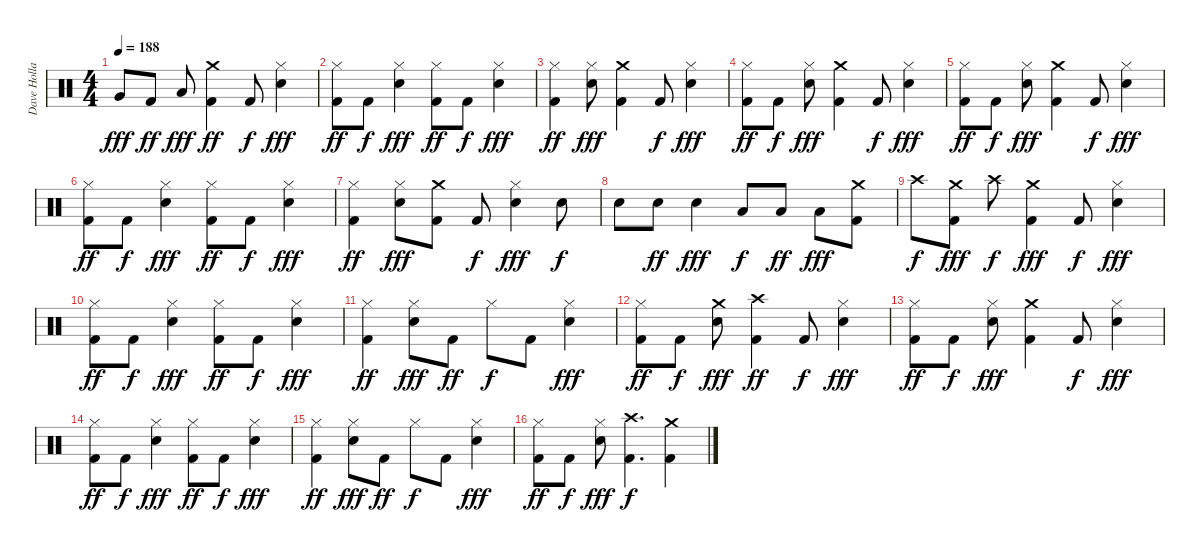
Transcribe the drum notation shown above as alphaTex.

\track ("Dave Holland" "Dave Holla") {instrument percussion}
\staff {score}
\articulation defaults
\ts (4 4)
\tempo 188
\clef neutral
\ks c "Very Low Tom (hit)".8{dy fff} "Kick (hit) 2".8{dy ff} "Low Floor Tom (hit)".8{dy fff}
("Crash medium (hit)" "Kick (hit) 2").4{dy ff} "Kick (hit) 2".8{dy f} ("Snare (hit) 2" "Hi-Hat (closed)").4{dy fff} |
("Kick (hit) 2" "Hi-Hat (closed)").8{dy ff} "Kick (hit) 2".8{dy f} ("Snare (hit) 2" "Hi-Hat (closed)").4{dy fff} ("Kick (hit) 2" "Hi-Hat (closed)").8{dy ff} "Kick (hit) 2".8{dy f} ("Snare (hit) 2" "Hi-Hat (closed)").4{dy fff} |
("Kick (hit) 2" "Hi-Hat (closed)").4{dy ff} ("Snare (hit) 2" "Hi-Hat (closed)").8{dy fff} ("Kick (hit) 2" "Crash medium (hit)").4 "Kick (hit) 2".8{dy f} ("Snare (hit) 2" "Hi-Hat (closed)").4{dy fff} |
("Kick (hit) 2" "Hi-Hat (closed)").8{dy ff} "Kick (hit) 2".8{dy f} ("Snare (hit) 2" "Hi-Hat (closed)").8{dy fff} ("Kick (hit) 2" "Crash medium (hit)").4 "Kick (hit) 2".8{dy f} ("Snare (hit) 2" "Hi-Hat (closed)").4{dy fff} |
("Kick (hit) 2" "Hi-Hat (closed)").8{dy ff} "Kick (hit) 2".8{dy f} ("Snare (hit) 2" "Hi-Hat (closed)").8{dy fff} ("Kick (hit) 2" "Crash medium (hit)").4 "Kick (hit) 2".8{dy f} ("Snare (hit) 2" "Hi-Hat (closed)").4{dy fff} |
("Kick (hit) 2" "Hi-Hat (closed)").8{dy ff} "Kick (hit) 2".8{dy f} ("Snare (hit) 2" "Hi-Hat (closed)").4{dy fff} ("Kick (hit) 2" "Hi-Hat (closed)").8{dy ff} "Kick (hit) 2".8{dy f} ("Snare (hit) 2" "Hi-Hat (closed)").4{dy fff} |
("Kick (hit) 2" "Hi-Hat (closed)").4{dy ff} ("Snare (hit) 2" "Hi-Hat (closed)").8{dy fff} ("Kick (hit) 2" "Crash medium (hit)").8 "Kick (hit) 2".8{dy f} ("Snare (hit) 2" "Hi-Hat (closed)").4{dy fff} "Snare (hit) 2".8{dy f} |
"Snare (hit) 2".8 "Snare (hit) 2".8{dy ff} "Snare (hit) 2".4{dy fff} "Low Tom (hit)".8{dy f} "Low Tom (hit)".8{dy ff} "Low Tom (hit)".8{dy fff} ("Kick (hit) 2" "Crash medium (hit)").8 |
"Crash high (hit)".8{dy f} ("Kick (hit) 2" "Crash medium (hit)").8{dy fff} "Crash high (hit)".8{dy f} ("Kick (hit) 2" "Crash medium (hit)").4{dy fff} "Kick (hit) 2".8{dy f} ("Snare (hit) 2" "Hi-Hat (closed)").4{dy fff} |
("Kick (hit) 2" "Hi-Hat (closed)").8{dy ff} "Kick (hit) 2".8{dy f} ("Snare (hit) 2" "Hi-Hat (closed)").4{dy fff} ("Kick (hit) 2" "Hi-Hat (closed)").8{dy ff} "Kick (hit) 2".8{dy f} ("Snare (hit) 2" "Hi-Hat (closed)").4{dy fff} |
("Kick (hit) 2" "Hi-Hat (closed)").4{dy ff} ("Snare (hit) 2" "Hi-Hat (closed)").8{dy fff} "Kick (hit) 2".8{dy ff} "Hi-Hat (closed)".8{dy f} "Kick (hit) 2".8 ("Snare (hit) 2" "Hi-Hat (closed)").4{dy fff} |
("Kick (hit) 2" "Hi-Hat (closed)").8{dy ff} "Kick (hit) 2".8{dy f} ("Crash medium (hit)" "Snare (hit) 2").8{dy fff} ("Crash high (hit)" "Kick (hit) 2").4{dy ff} "Kick (hit) 2".8{dy f} ("Snare (hit) 2" "Hi-Hat (closed)").4{dy fff} |
("Kick (hit) 2" "Hi-Hat (closed)").8{dy ff} "Kick (hit) 2".8{dy f} ("Snare (hit) 2" "Hi-Hat (closed)").8{dy fff} ("Kick (hit) 2" "Crash medium (hit)").4 "Kick (hit) 2".8{dy f} ("Snare (hit) 2" "Hi-Hat (closed)").4{dy fff} |
("Kick (hit) 2" "Hi-Hat (closed)").8{dy ff} "Kick (hit) 2".8{dy f} ("Snare (hit) 2" "Hi-Hat (closed)").4{dy fff} ("Kick (hit) 2" "Hi-Hat (closed)").8{dy ff} "Kick (hit) 2".8{dy f} ("Snare (hit) 2" "Hi-Hat (closed)").4{dy fff} |
("Kick (hit) 2" "Hi-Hat (closed)").4{dy ff} ("Snare (hit) 2" "Hi-Hat (closed)").8{dy fff} "Kick (hit) 2".8{dy ff} "Hi-Hat (closed)".8{dy f} "Kick (hit) 2".8 ("Snare (hit) 2" "Hi-Hat (closed)").4{dy fff} |
("Kick (hit) 2" "Hi-Hat (closed)").8{dy ff} "Kick (hit) 2".8{dy f} ("Snare (hit) 2" "Hi-Hat (closed)").8{dy fff} ("Kick (hit) 2" "Crash high (hit)").4{d dy f} ("Kick (hit) 2" "Crash medium (hit)").4
